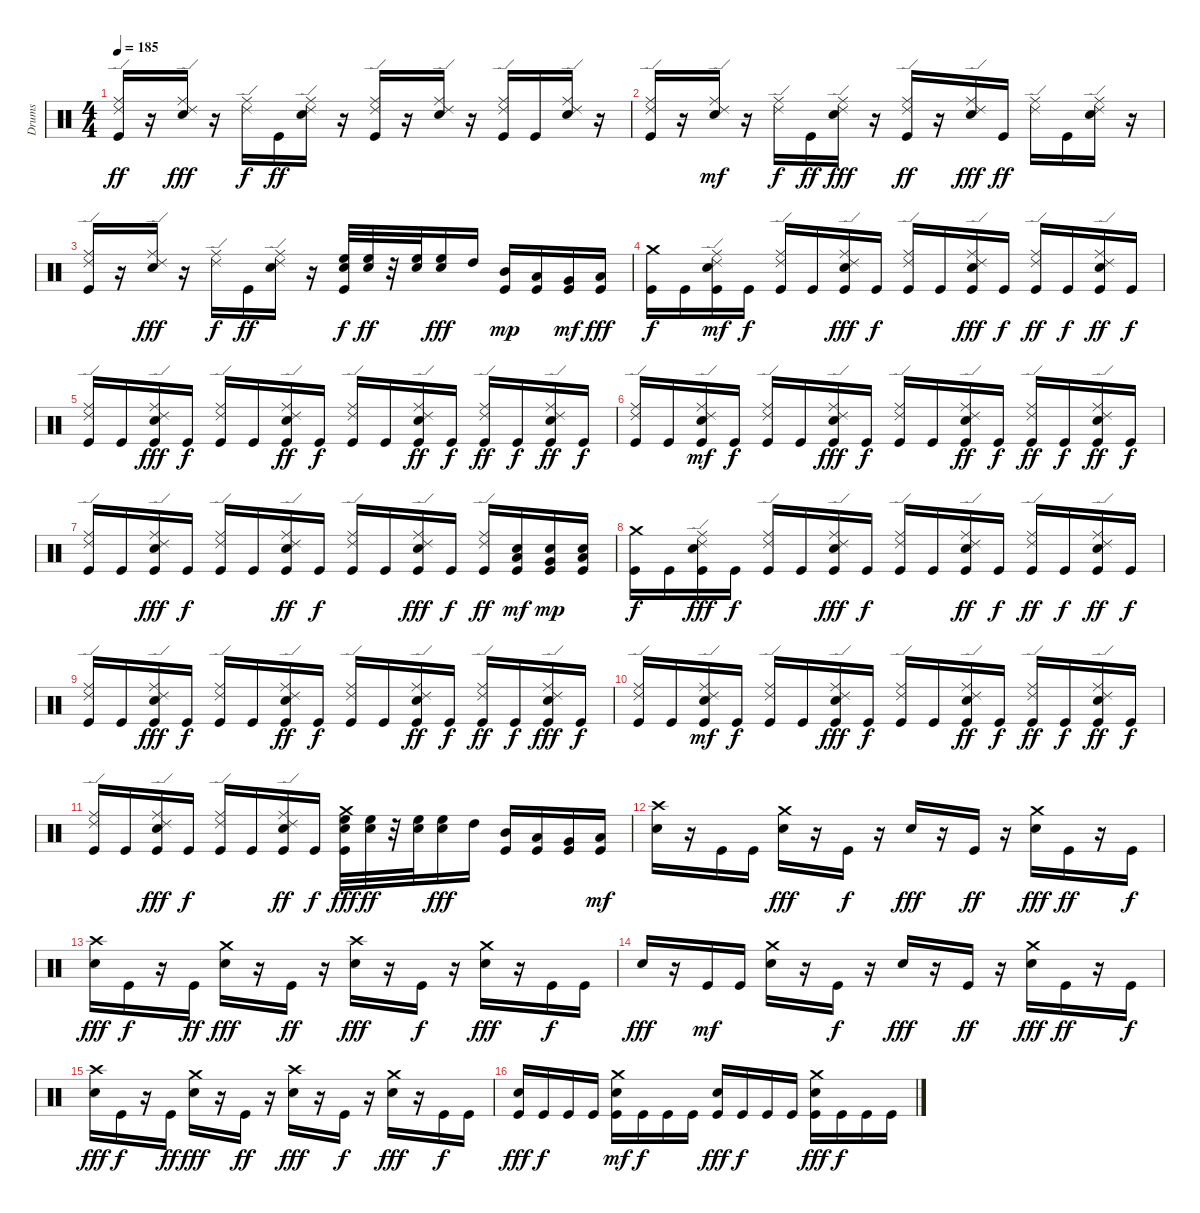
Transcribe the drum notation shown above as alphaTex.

\track ("Drums" "Drums") {instrument percussion}
\staff {score}
\articulation defaults
\ts (4 4)
\tempo 185
\clef neutral
\ks c
("Ride (edge) 2" "Ride (middle)" "Kick (hit)").16{dy ff} r.16 ("Ride (edge) 2" "Ride (middle)" "Electric Snare (hit)").16{dy fff} r.16 ("Ride (middle)" "Ride (edge) 2").16{dy f} "Kick (hit)".16{dy ff} ("Ride (edge) 2" "Electric Snare (hit)" "Ride (middle)").16 r.16 ("Ride (middle)" "Kick (hit)" "Ride (edge) 2").16 r.16 ("Electric Snare (hit)" "Ride (edge) 2" "Ride (middle)").16 r.16 ("Kick (hit)" "Ride (edge) 2" "Ride (middle)").16 "Kick (hit)".16 ("Electric Snare (hit)" "Ride (edge) 2" "Ride (middle)").16 r.16 |
("Ride (middle)" "Ride (edge) 2" "Kick (hit)").16 r.16 ("Electric Snare (hit)" "Ride (middle)" "Ride (edge) 2").16{dy mf} r.16 ("Ride (edge) 2" "Ride (middle)").16{dy f} "Kick (hit)".16{dy ff} ("Ride (middle)" "Ride (edge) 2" "Electric Snare (hit)").16{dy fff} r.16 ("Kick (hit)" "Ride (edge) 2" "Ride (middle)").16{dy ff} r.16 ("Ride (middle)" "Ride (edge) 2" "Electric Snare (hit)").16{dy fff} "Kick (hit)".16{dy ff} ("Ride (middle)" "Ride (edge) 2").16 "Kick (hit)".16 ("Ride (middle)" "Electric Snare (hit)" "Ride (edge) 2").16 r.16 |
("Ride (edge) 2" "Ride (middle)" "Kick (hit)").16 r.16 ("Electric Snare (hit)" "Ride (middle)" "Ride (edge) 2").16{dy fff} r.16 ("Ride (middle)" "Ride (edge) 2").16{dy f} "Kick (hit)".16{dy ff} ("Ride (edge) 2" "Electric Snare (hit)" "Ride (middle)").16 r.16 ("Electric Snare (hit)" "High Floor Tom (hit)" "Kick (hit)").32{dy f} ("Electric Snare (hit)" "High Floor Tom (hit)").32{dy ff} r.32 ("Electric Snare (hit)" "High Floor Tom (hit)").32 ("Electric Snare (hit)" "High Floor Tom (hit)").16{dy fff} "High Tom (hit)".16 ("Mid Tom (hit)" "Kick (hit)").16{dy mp} ("Low Tom (hit)" "Kick (hit)").16 ("Very Low Tom (hit)" "Kick (hit)").16{dy mf} ("Kick (hit)" "Low Floor Tom (hit)").16{dy fff} |
("Kick (hit)" "Crash medium (hit)").16{dy f} "Kick (hit)".16 ("Kick (hit)" "Electric Snare (hit)" "Ride (middle)" "Ride (edge) 2").16{dy mf} "Kick (hit)".16{dy f} ("Kick (hit)" "Ride (edge) 2" "Ride (middle)").16 "Kick (hit)".16 ("Kick (hit)" "Ride (middle)" "Ride (edge) 2" "Electric Snare (hit)").16{dy fff} "Kick (hit)".16{dy f} ("Kick (hit)" "Ride (edge) 2" "Ride (middle)").16 "Kick (hit)".16 ("Kick (hit)" "Ride (middle)" "Ride (edge) 2" "Electric Snare (hit)").16{dy fff} "Kick (hit)".16{dy f} ("Kick (hit)" "Ride (middle)" "Ride (edge) 2").16{dy ff} "Kick (hit)".16{dy f} ("Kick (hit)" "Ride (middle)" "Electric Snare (hit)" "Ride (edge) 2").16{dy ff} "Kick (hit)".16{dy f} |
("Kick (hit)" "Ride (edge) 2" "Ride (middle)").16 "Kick (hit)".16 ("Kick (hit)" "Ride (edge) 2" "Ride (middle)" "Electric Snare (hit)").16{dy fff} "Kick (hit)".16{dy f} ("Kick (hit)" "Ride (middle)" "Ride (edge) 2").16 "Kick (hit)".16 ("Kick (hit)" "Ride (edge) 2" "Electric Snare (hit)" "Ride (middle)").16{dy ff} "Kick (hit)".16{dy f} ("Kick (hit)" "Ride (middle)" "Ride (edge) 2").16 "Kick (hit)".16 ("Kick (hit)" "Electric Snare (hit)" "Ride (edge) 2" "Ride (middle)").16{dy ff} "Kick (hit)".16{dy f} ("Kick (hit)" "Ride (edge) 2" "Ride (middle)").16{dy ff} "Kick (hit)".16{dy f} ("Kick (hit)" "Electric Snare (hit)" "Ride (edge) 2" "Ride (middle)").16{dy ff} "Kick (hit)".16{dy f} |
("Kick (hit)" "Ride (edge) 2" "Ride (middle)").16 "Kick (hit)".16 ("Kick (hit)" "Electric Snare (hit)" "Ride (middle)" "Ride (edge) 2").16{dy mf} "Kick (hit)".16{dy f} ("Ride (middle)" "Ride (edge) 2" "Kick (hit)").16 "Kick (hit)".16 ("Electric Snare (hit)" "Ride (edge) 2" "Ride (middle)" "Kick (hit)").16{dy fff} "Kick (hit)".16{dy f} ("Kick (hit)" "Ride (edge) 2" "Ride (middle)").16 "Kick (hit)".16 ("Electric Snare (hit)" "Ride (edge) 2" "Ride (middle)" "Kick (hit)").16{dy ff} "Kick (hit)".16{dy f} ("Ride (edge) 2" "Ride (middle)" "Kick (hit)").16{dy ff} "Kick (hit)".16{dy f} ("Ride (edge) 2" "Electric Snare (hit)" "Ride (middle)" "Kick (hit)").16{dy ff} "Kick (hit)".16{dy f} |
("Kick (hit)" "Ride (edge) 2" "Ride (middle)").16 "Kick (hit)".16 ("Electric Snare (hit)" "Ride (middle)" "Ride (edge) 2" "Kick (hit)").16{dy fff} "Kick (hit)".16{dy f} ("Ride (edge) 2" "Ride (middle)" "Kick (hit)").16 "Kick (hit)".16 ("Kick (hit)" "Ride (edge) 2" "Electric Snare (hit)" "Ride (middle)").16{dy ff} "Kick (hit)".16{dy f} ("Ride (edge) 2" "Ride (middle)" "Kick (hit)").16 "Kick (hit)".16 ("Ride (middle)" "Ride (edge) 2" "Electric Snare (hit)" "Kick (hit)").16{dy fff} "Kick (hit)".16{dy f} ("Ride (middle)" "Ride (edge) 2" "Kick (hit)").16{dy ff} ("Electric Snare (hit)" "Low Tom (hit)" "Kick (hit)").16{dy mf} ("Electric Snare (hit)" "Kick (hit)" "Very Low Tom (hit)").16{dy mp} ("Electric Snare (hit)" "Low Floor Tom (hit)" "Kick (hit)").16 |
("Kick (hit)" "Crash medium (hit)").16{dy f} "Kick (hit)".16 ("Ride (edge) 2" "Ride (middle)" "Electric Snare (hit)" "Kick (hit)").16{dy fff} "Kick (hit)".16{dy f} ("Ride (middle)" "Ride (edge) 2" "Kick (hit)").16 "Kick (hit)".16 ("Kick (hit)" "Ride (middle)" "Ride (edge) 2" "Electric Snare (hit)").16{dy fff} "Kick (hit)".16{dy f} ("Ride (middle)" "Ride (edge) 2" "Kick (hit)").16 "Kick (hit)".16 ("Electric Snare (hit)" "Ride (edge) 2" "Ride (middle)" "Kick (hit)").16{dy ff} "Kick (hit)".16{dy f} ("Kick (hit)" "Ride (middle)" "Ride (edge) 2").16{dy ff} "Kick (hit)".16{dy f} ("Kick (hit)" "Ride (middle)" "Electric Snare (hit)" "Ride (edge) 2").16{dy ff} "Kick (hit)".16{dy f} |
("Ride (middle)" "Ride (edge) 2" "Kick (hit)").16 "Kick (hit)".16 ("Electric Snare (hit)" "Ride (middle)" "Ride (edge) 2" "Kick (hit)").16{dy fff} "Kick (hit)".16{dy f} ("Kick (hit)" "Ride (middle)" "Ride (edge) 2").16 "Kick (hit)".16 ("Ride (middle)" "Electric Snare (hit)" "Ride (edge) 2" "Kick (hit)").16{dy ff} "Kick (hit)".16{dy f} ("Ride (edge) 2" "Ride (middle)" "Kick (hit)").16 "Kick (hit)".16 ("Kick (hit)" "Electric Snare (hit)" "Ride (edge) 2" "Ride (middle)").16{dy ff} "Kick (hit)".16{dy f} ("Kick (hit)" "Ride (edge) 2" "Ride (middle)").16{dy ff} "Kick (hit)".16{dy f} ("Ride (middle)" "Ride (edge) 2" "Electric Snare (hit)" "Kick (hit)").16{dy fff} "Kick (hit)".16{dy f} |
("Kick (hit)" "Ride (edge) 2" "Ride (middle)").16 "Kick (hit)".16 ("Kick (hit)" "Electric Snare (hit)" "Ride (middle)" "Ride (edge) 2").16{dy mf} "Kick (hit)".16{dy f} ("Ride (middle)" "Ride (edge) 2" "Kick (hit)").16 "Kick (hit)".16 ("Electric Snare (hit)" "Ride (edge) 2" "Ride (middle)" "Kick (hit)").16{dy fff} "Kick (hit)".16{dy f} ("Kick (hit)" "Ride (edge) 2" "Ride (middle)").16 "Kick (hit)".16 ("Electric Snare (hit)" "Ride (edge) 2" "Ride (middle)" "Kick (hit)").16{dy ff} "Kick (hit)".16{dy f} ("Ride (edge) 2" "Ride (middle)" "Kick (hit)").16{dy ff} "Kick (hit)".16{dy f} ("Ride (edge) 2" "Electric Snare (hit)" "Ride (middle)" "Kick (hit)").16{dy ff} "Kick (hit)".16{dy f} |
("Kick (hit)" "Ride (edge) 2" "Ride (middle)").16 "Kick (hit)".16 ("Electric Snare (hit)" "Ride (middle)" "Ride (edge) 2" "Kick (hit)").16{dy fff} "Kick (hit)".16{dy f} ("Ride (edge) 2" "Ride (middle)" "Kick (hit)").16 "Kick (hit)".16 ("Kick (hit)" "Ride (edge) 2" "Electric Snare (hit)" "Ride (middle)").16{dy ff} "Kick (hit)".16{dy f} ("Crash medium (hit)" "Kick (hit)" "High Floor Tom (hit)" "Electric Snare (hit)").32{dy fff} ("High Floor Tom (hit)" "Electric Snare (hit)").32{dy ff} r.32 ("High Floor Tom (hit)" "Electric Snare (hit)").32 ("High Floor Tom (hit)" "Electric Snare (hit)").16{dy fff} "High Tom (hit)".16 ("Kick (hit)" "Mid Tom (hit)").16 ("Kick (hit)" "Low Tom (hit)").16 ("Kick (hit)" "Very Low Tom (hit)").16 ("Low Floor Tom (hit)" "Kick (hit)").16{dy mf} |
("Electric Snare (hit)" "Crash high (hit)").16 r.16 "Kick (hit)".16 "Kick (hit)".16 ("Crash medium (hit)" "Electric Snare (hit)").16{dy fff} r.16 "Kick (hit)".16{dy f} r.16 "Electric Snare (hit)".16{dy fff} r.16 "Kick (hit)".16{dy ff} r.16 ("Electric Snare (hit)" "Crash medium (hit)").16{dy fff} "Kick (hit)".16{dy ff} r.16 "Kick (hit)".16{dy f} |
("Crash high (hit)" "Electric Snare (hit)").16{dy fff} "Kick (hit)".16{dy f} r.16 "Kick (hit)".16{dy ff} ("Crash medium (hit)" "Electric Snare (hit)").16{dy fff} r.16 "Kick (hit)".16{dy ff} r.16 ("Electric Snare (hit)" "Crash high (hit)").16{dy fff} r.16 "Kick (hit)".16{dy f} r.16 ("Crash medium (hit)" "Electric Snare (hit)").16{dy fff} r.16 "Kick (hit)".16{dy f} "Kick (hit)".16 |
"Electric Snare (hit)".16{dy fff} r.16 "Kick (hit)".16{dy mf} "Kick (hit)".16 ("Electric Snare (hit)" "Crash medium (hit)").16 r.16 "Kick (hit)".16{dy f} r.16 "Electric Snare (hit)".16{dy fff} r.16 "Kick (hit)".16{dy ff} r.16 ("Electric Snare (hit)" "Crash medium (hit)").16{dy fff} "Kick (hit)".16{dy ff} r.16 "Kick (hit)".16{dy f} |
("Crash high (hit)" "Electric Snare (hit)").16{dy fff} "Kick (hit)".16{dy f} r.16 "Kick (hit)".16{dy ff} ("Crash medium (hit)" "Electric Snare (hit)").16{dy fff} r.16 "Kick (hit)".16{dy ff} r.16 ("Electric Snare (hit)" "Crash high (hit)").16{dy fff} r.16 "Kick (hit)".16{dy f} r.16 ("Crash medium (hit)" "Electric Snare (hit)").16{dy fff} r.16 "Kick (hit)".16{dy f} "Kick (hit)".16 |
("Electric Snare (hit)" "Kick (hit)").16{dy fff} "Kick (hit)".16{dy f} "Kick (hit)".16 "Kick (hit)".16 ("Electric Snare (hit)" "Kick (hit)" "Crash medium (hit)").16{dy mf} "Kick (hit)".16{dy f} "Kick (hit)".16 "Kick (hit)".16 ("Electric Snare (hit)" "Kick (hit)").16{dy fff} "Kick (hit)".16{dy f} "Kick (hit)".16 "Kick (hit)".16 ("Electric Snare (hit)" "Kick (hit)" "Crash medium (hit)").16{dy fff} "Kick (hit)".16{dy f} "Kick (hit)".16 "Kick (hit)".16
